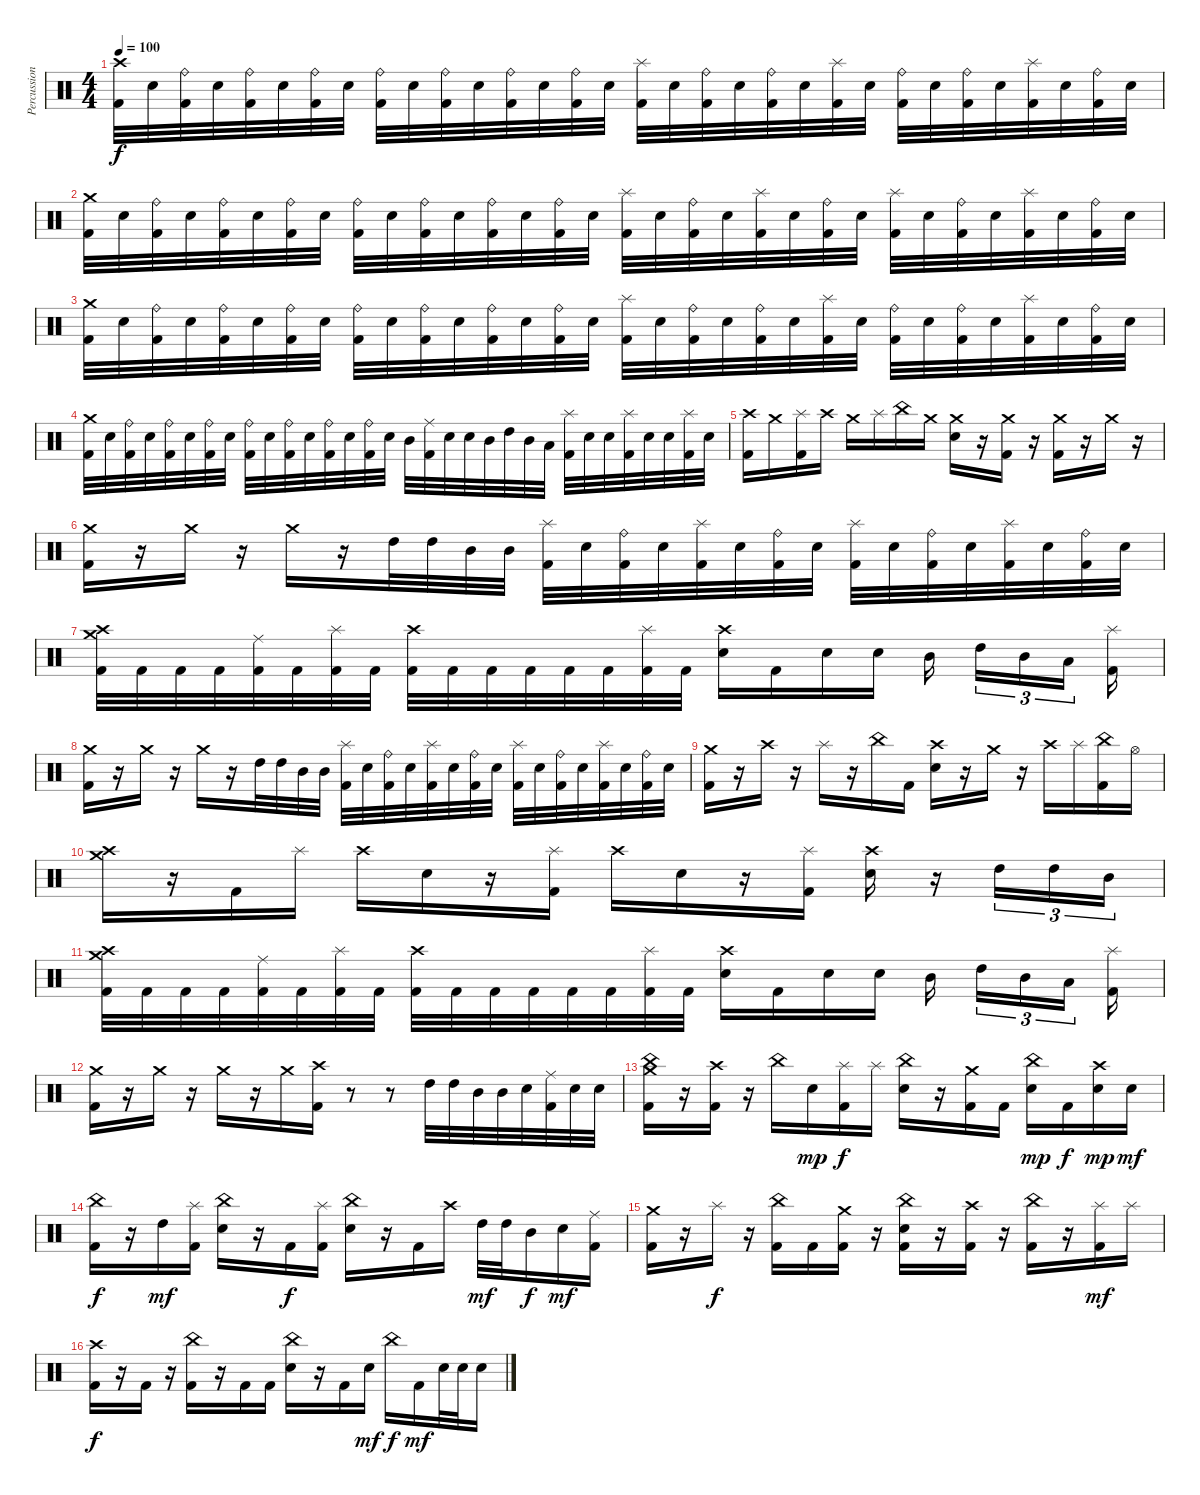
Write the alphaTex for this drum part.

\track ("Percussion" "Percussion") {instrument percussion}
\staff {score}
\articulation defaults
\ts (4 4)
\tempo 100
\clef neutral
\ks c
("Crash high (hit)" "Kick (hit) 2").32{dy f} "Electric Snare (hit)".32 ("Ride (bell)" "Kick (hit) 2").32 "Electric Snare (hit)".32 ("Ride (bell)" "Kick (hit) 2").32 "Electric Snare (hit)".32 ("Ride (bell)" "Kick (hit) 2").32 "Electric Snare (hit)".32 ("Ride (bell)" "Kick (hit) 2").32 "Electric Snare (hit)".32 ("Ride (bell)" "Kick (hit) 2").32 "Electric Snare (hit)".32 ("Ride (bell)" "Kick (hit) 2").32 "Electric Snare (hit)".32 ("Ride (bell)" "Kick (hit) 2").32 "Electric Snare (hit)".32 ("Splash (hit)" "Kick (hit) 2").32 "Electric Snare (hit)".32 ("Ride (bell)" "Kick (hit) 2").32 "Electric Snare (hit)".32 ("Ride (bell)" "Kick (hit) 2").32 "Electric Snare (hit)".32 ("Splash (hit)" "Kick (hit) 2").32 "Electric Snare (hit)".32 ("Ride (bell)" "Kick (hit) 2").32 "Electric Snare (hit)".32 ("Ride (bell)" "Kick (hit) 2").32 "Electric Snare (hit)".32 ("Splash (hit)" "Kick (hit) 2").32 "Electric Snare (hit)".32 ("Ride (bell)" "Kick (hit) 2").32 "Electric Snare (hit)".32 |
("Crash medium (hit)" "Kick (hit) 2").32 "Electric Snare (hit)".32 ("Ride (bell)" "Kick (hit) 2").32 "Electric Snare (hit)".32 ("Ride (bell)" "Kick (hit) 2").32 "Electric Snare (hit)".32 ("Ride (bell)" "Kick (hit) 2").32 "Electric Snare (hit)".32 ("Ride (bell)" "Kick (hit) 2").32 "Electric Snare (hit)".32 ("Ride (bell)" "Kick (hit) 2").32 "Electric Snare (hit)".32 ("Ride (bell)" "Kick (hit) 2").32 "Electric Snare (hit)".32 ("Ride (bell)" "Kick (hit) 2").32 "Electric Snare (hit)".32 ("Splash (hit)" "Kick (hit) 2").32 "Electric Snare (hit)".32 ("Ride (bell)" "Kick (hit) 2").32 "Electric Snare (hit)".32 ("Splash (hit)" "Kick (hit) 2").32 "Electric Snare (hit)".32 ("Ride (bell)" "Kick (hit) 2").32 "Electric Snare (hit)".32 ("Splash (hit)" "Kick (hit) 2").32 "Electric Snare (hit)".32 ("Ride (bell)" "Kick (hit) 2").32 "Electric Snare (hit)".32 ("Splash (hit)" "Kick (hit) 2").32 "Electric Snare (hit)".32 ("Ride (bell)" "Kick (hit) 2").32 "Electric Snare (hit)".32 |
("Crash medium (hit)" "Kick (hit) 2").32 "Electric Snare (hit)".32 ("Ride (bell)" "Kick (hit) 2").32 "Electric Snare (hit)".32 ("Ride (bell)" "Kick (hit) 2").32 "Electric Snare (hit)".32 ("Ride (bell)" "Kick (hit) 2").32 "Electric Snare (hit)".32 ("Ride (bell)" "Kick (hit) 2").32 "Electric Snare (hit)".32 ("Ride (bell)" "Kick (hit) 2").32 "Electric Snare (hit)".32 ("Ride (bell)" "Kick (hit) 2").32 "Electric Snare (hit)".32 ("Ride (bell)" "Kick (hit) 2").32 "Electric Snare (hit)".32 ("Splash (hit)" "Kick (hit) 2").32 "Electric Snare (hit)".32 ("Ride (bell)" "Kick (hit) 2").32 "Electric Snare (hit)".32 ("Ride (bell)" "Kick (hit) 2").32 "Electric Snare (hit)".32 ("Splash (hit)" "Kick (hit) 2").32 "Electric Snare (hit)".32 ("Ride (bell)" "Kick (hit) 2").32 "Electric Snare (hit)".32 ("Ride (bell)" "Kick (hit) 2").32 "Electric Snare (hit)".32 ("Splash (hit)" "Kick (hit) 2").32 "Electric Snare (hit)".32 ("Ride (bell)" "Kick (hit) 2").32 "Electric Snare (hit)".32 |
("Crash medium (hit)" "Kick (hit) 2").32 "Electric Snare (hit)".32 ("Ride (bell)" "Kick (hit) 2").32 "Electric Snare (hit)".32 ("Ride (bell)" "Kick (hit) 2").32 "Electric Snare (hit)".32 ("Ride (bell)" "Kick (hit) 2").32 "Electric Snare (hit)".32 ("Ride (bell)" "Kick (hit) 2").32 "Electric Snare (hit)".32 ("Ride (bell)" "Kick (hit) 2").32 "Electric Snare (hit)".32 ("Ride (bell)" "Kick (hit) 2").32 "Electric Snare (hit)".32 ("Ride (bell)" "Kick (hit) 2").32 "Electric Snare (hit)".32 "Mid Tom (hit)".32 ("Ride (middle)" "Kick (hit) 2").32 "Electric Snare (hit)".32 "Electric Snare (hit)".32 "Mid Tom (hit)".32 "High Tom (hit)".32 "Mid Tom (hit)".32 "Low Tom (hit)".32 ("Splash (hit)" "Kick (hit) 2").32 "Electric Snare (hit)".32 "Electric Snare (hit)".32 ("Splash (hit)" "Kick (hit) 2").32 "Electric Snare (hit)".32 "Electric Snare (hit)".32 ("Splash (hit)" "Kick (hit) 2").32 "Electric Snare (hit)".32 |
("Crash high (hit)" "Kick (hit) 2").16 "Crash medium (hit)".16 ("Splash (hit)" "Kick (hit) 2").16 "Crash high (hit)".16 "Crash medium (hit)".16 "Splash (hit)".16 "China (hit)".16 "Crash medium (hit)".16 ("Crash medium (hit)" "Electric Snare (hit)").16 r.16 ("Crash medium (hit)" "Kick (hit) 2").16 r.16 ("Crash medium (hit)" "Kick (hit) 2").16 r.16 "Crash medium (hit)".16 r.16 |
("Crash medium (hit)" "Kick (hit) 2").16 r.16 "Crash medium (hit)".16 r.16 "Crash medium (hit)".16 r.16 "High Tom (hit)".32 "High Tom (hit)".32 "Mid Tom (hit)".32 "Mid Tom (hit)".32 ("Splash (hit)" "Kick (hit) 2").32 "Electric Snare (hit)".32 ("Ride (bell)" "Kick (hit) 2").32 "Electric Snare (hit)".32 ("Splash (hit)" "Kick (hit) 2").32 "Electric Snare (hit)".32 ("Ride (bell)" "Kick (hit) 2").32 "Electric Snare (hit)".32 ("Splash (hit)" "Kick (hit) 2").32 "Electric Snare (hit)".32 ("Ride (bell)" "Kick (hit) 2").32 "Electric Snare (hit)".32 ("Splash (hit)" "Kick (hit) 2").32 "Electric Snare (hit)".32 ("Ride (bell)" "Kick (hit) 2").32 "Electric Snare (hit)".32 |
("Crash high (hit)" "Crash medium (hit)" "Kick (hit) 2").32 "Kick (hit) 2".32 "Kick (hit) 2".32 "Kick (hit) 2".32 ("Ride (middle)" "Kick (hit) 2").32 "Kick (hit) 2".32 ("Splash (hit)" "Kick (hit) 2").32 "Kick (hit) 2".32 ("Crash high (hit)" "Kick (hit) 2").32 "Kick (hit) 2".32 "Kick (hit) 2".32 "Kick (hit) 2".32 "Kick (hit) 2".32 "Kick (hit) 2".32 ("Splash (hit)" "Kick (hit) 2").32 "Kick (hit) 2".32 ("Crash high (hit)" "Electric Snare (hit)").16 "Kick (hit) 2".16 "Electric Snare (hit)".16 "Electric Snare (hit)".16 "Mid Tom (hit)".16 "High Tom (hit)".16{tu (3 2)} "Mid Tom (hit)".16{tu (3 2)} "Low Tom (hit)".16{tu (3 2)} ("Splash (hit)" "Kick (hit) 2").16 |
("Crash medium (hit)" "Kick (hit) 2").16 r.16 "Crash medium (hit)".16 r.16 "Crash medium (hit)".16 r.16 "High Tom (hit)".32 "High Tom (hit)".32 "Mid Tom (hit)".32 "Mid Tom (hit)".32 ("Splash (hit)" "Kick (hit) 2").32 "Electric Snare (hit)".32 ("Ride (bell)" "Kick (hit) 2").32 "Electric Snare (hit)".32 ("Splash (hit)" "Kick (hit) 2").32 "Electric Snare (hit)".32 ("Ride (bell)" "Kick (hit) 2").32 "Electric Snare (hit)".32 ("Splash (hit)" "Kick (hit) 2").32 "Electric Snare (hit)".32 ("Ride (bell)" "Kick (hit) 2").32 "Electric Snare (hit)".32 ("Splash (hit)" "Kick (hit) 2").32 "Electric Snare (hit)".32 ("Ride (bell)" "Kick (hit) 2").32 "Electric Snare (hit)".32 |
("Crash medium (hit)" "Kick (hit) 2").16 r.16 "Crash high (hit)".16 r.16 "Splash (hit)".16 r.16 "China (hit)".16 "Kick (hit) 2".16 ("Crash high (hit)" "Electric Snare (hit)").16 r.16 "Crash medium (hit)".16 r.16 "Crash high (hit)".16 "Splash (hit)".16 ("China (hit)" "Kick (hit) 2").16 "Hi-Hat (open)".16 |
("Crash medium (hit)" "Crash high (hit)").16 r.16 "Kick (hit) 2".16 "Splash (hit)".16 "Crash high (hit)".16 "Electric Snare (hit)".16 r.16 ("Splash (hit)" "Kick (hit) 2").16 "Crash high (hit)".16 "Electric Snare (hit)".16 r.16 ("Splash (hit)" "Kick (hit) 2").16 ("Crash high (hit)" "Electric Snare (hit)").16 r.16 "High Tom (hit)".16{tu (3 2)} "High Tom (hit)".16{tu (3 2)} "Mid Tom (hit)".16{tu (3 2)} |
("Crash high (hit)" "Crash medium (hit)" "Kick (hit) 2").32 "Kick (hit) 2".32 "Kick (hit) 2".32 "Kick (hit) 2".32 ("Ride (middle)" "Kick (hit) 2").32 "Kick (hit) 2".32 ("Splash (hit)" "Kick (hit) 2").32 "Kick (hit) 2".32 ("Crash high (hit)" "Kick (hit) 2").32 "Kick (hit) 2".32 "Kick (hit) 2".32 "Kick (hit) 2".32 "Kick (hit) 2".32 "Kick (hit) 2".32 ("Splash (hit)" "Kick (hit) 2").32 "Kick (hit) 2".32 ("Crash high (hit)" "Electric Snare (hit)").16 "Kick (hit) 2".16 "Electric Snare (hit)".16 "Electric Snare (hit)".16 "Mid Tom (hit)".16 "High Tom (hit)".16{tu (3 2)} "Mid Tom (hit)".16{tu (3 2)} "Low Tom (hit)".16{tu (3 2)} ("Splash (hit)" "Kick (hit) 2").16 |
("Crash medium (hit)" "Kick (hit) 2").16 r.16 "Crash medium (hit)".16 r.16 "Crash medium (hit)".16 r.16 "Crash medium (hit)".16 ("Crash high (hit)" "Kick (hit) 2").16 r.8{volume 0} r.8{volume 8} "High Tom (hit)".32{volume 13} "High Tom (hit)".32 "Mid Tom (hit)".32 "Mid Tom (hit)".32 "Electric Snare (hit)".32 ("Ride (middle)" "Kick (hit) 2").32 "Electric Snare (hit)".32 "Electric Snare (hit)".32 |
("China (hit)" "Crash medium (hit)" "Kick (hit) 2").16{volume 16} r.16 ("Crash high (hit)" "Kick (hit) 2").16{volume 13} r.16 "China (hit)".16 "Electric Snare (hit)".16{dy mp} ("Splash (hit)" "Kick (hit) 2").16{dy f} "Splash (hit)".16 ("China (hit)" "Electric Snare (hit)").16 r.16 ("Crash medium (hit)" "Kick (hit) 2").16 "Kick (hit) 2".16 ("China (hit)" "Electric Snare (hit)").16{dy mp} "Kick (hit) 2".16{dy f} ("Crash high (hit)" "Electric Snare (hit)").16{dy mp} "Electric Snare (hit)".16{dy mf} |
("China (hit)" "Kick (hit) 2").16{dy f} r.16 "High Tom (hit)".16{dy mf} ("Splash (hit)" "Kick (hit) 2").16 ("China (hit)" "Electric Snare (hit)").16 r.16 "Kick (hit) 2".16{dy f} ("Splash (hit)" "Kick (hit) 2").16 ("China (hit)" "Electric Snare (hit)").16 r.16 "Kick (hit) 2".16 "Crash high (hit)".16 "High Tom (hit)".32{dy mf} "High Tom (hit)".32 "Mid Tom (hit)".16{dy f} "Electric Snare (hit)".16{dy mf} ("Ride (middle)" "Kick (hit) 2").16 |
("Crash medium (hit)" "Kick (hit) 2").16 r.16 "Splash (hit)".16{dy f} r.16 ("China (hit)" "Kick (hit) 2").16 "Kick (hit) 2".16 ("Crash medium (hit)" "Kick (hit) 2").16 r.16 ("China (hit)" "Electric Snare (hit)" "Kick (hit) 2").16 r.16 ("Crash high (hit)" "Kick (hit) 2").16 r.16 ("China (hit)" "Kick (hit) 2").16 r.16 ("Splash (hit)" "Kick (hit) 2").16{dy mf} "Splash (hit)".16 |
("Crash high (hit)" "Kick (hit) 2").16{dy f} r.16 "Kick (hit) 2".16 r.16 ("China (hit)" "Kick (hit) 2").16 r.16 "Kick (hit) 2".16 "Kick (hit) 2".16 ("China (hit)" "Electric Snare (hit)").16 r.16 "Kick (hit) 2".16 "Electric Snare (hit)".16{dy mf} "China (hit)".16{dy f} "Kick (hit) 2".16{dy mf} "Electric Snare (hit)".32 "Electric Snare (hit)".32 "Electric Snare (hit)".16
